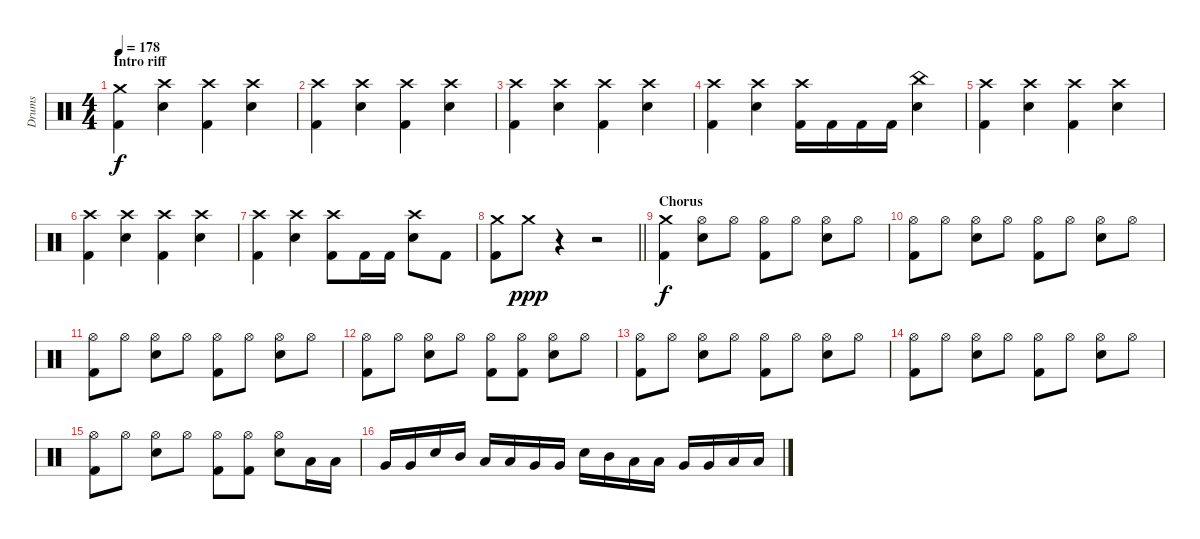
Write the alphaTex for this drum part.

\track ("Drums" "Drums") {instrument percussion}
\staff {score}
\articulation defaults
\ts (4 4)
\section ("" "Intro riff")
\tempo 178
\clef neutral
\ks c
("Crash medium (hit)" "Kick (hit) 2").4{dy f} ("Crash high (hit)" "Electric Snare (hit)").4 ("Crash high (hit)" "Kick (hit) 2").4 ("Crash high (hit)" "Electric Snare (hit)").4 |
("Crash high (hit)" "Kick (hit) 2").4 ("Crash high (hit)" "Electric Snare (hit)").4 ("Crash high (hit)" "Kick (hit) 2").4 ("Crash high (hit)" "Electric Snare (hit)").4 |
("Crash high (hit)" "Kick (hit) 2").4 ("Crash high (hit)" "Electric Snare (hit)").4 ("Crash high (hit)" "Kick (hit) 2").4 ("Crash high (hit)" "Electric Snare (hit)").4 |
("Crash high (hit)" "Kick (hit) 2").4 ("Crash high (hit)" "Electric Snare (hit)").4 ("Crash high (hit)" "Kick (hit) 2").16 "Kick (hit) 2".16 "Kick (hit) 2".16 "Kick (hit) 2".16 ("China (hit)" "Electric Snare (hit)").4 |
("Crash high (hit)" "Kick (hit) 2").4 ("Crash high (hit)" "Electric Snare (hit)").4 ("Crash high (hit)" "Kick (hit) 2").4 ("Crash high (hit)" "Electric Snare (hit)").4 |
("Crash high (hit)" "Kick (hit) 2").4 ("Crash high (hit)" "Electric Snare (hit)").4 ("Crash high (hit)" "Kick (hit) 2").4 ("Crash high (hit)" "Electric Snare (hit)").4 |
("Crash high (hit)" "Kick (hit) 2").4 ("Crash high (hit)" "Electric Snare (hit)").4 ("Crash high (hit)" "Kick (hit) 2").8 "Kick (hit) 2".16 "Kick (hit) 2".16 ("Crash high (hit)" "Electric Snare (hit)").8 "Kick (hit) 2".8 |
\barLineRight lightlight
("Crash medium (hit)" "Kick (hit) 2").8 "Crash medium (hit)".8{dy ppp} r.4 r.2 |
\section ("" "Chorus")
("Crash medium (hit)" "Kick (hit) 2").4{dy f} ("Hi-Hat (open)" "Electric Snare (hit)").8 "Hi-Hat (open)".8 ("Hi-Hat (open)" "Kick (hit) 2").8 "Hi-Hat (open)".8 ("Hi-Hat (open)" "Electric Snare (hit)").8 "Hi-Hat (open)".8 |
("Hi-Hat (open)" "Kick (hit) 2").8 "Hi-Hat (open)".8 ("Hi-Hat (open)" "Electric Snare (hit)").8 "Hi-Hat (open)".8 ("Hi-Hat (open)" "Kick (hit) 2").8 "Hi-Hat (open)".8 ("Hi-Hat (open)" "Electric Snare (hit)").8 "Hi-Hat (open)".8 |
("Hi-Hat (open)" "Kick (hit) 2").8 "Hi-Hat (open)".8 ("Hi-Hat (open)" "Electric Snare (hit)").8 "Hi-Hat (open)".8 ("Hi-Hat (open)" "Kick (hit) 2").8 "Hi-Hat (open)".8 ("Hi-Hat (open)" "Electric Snare (hit)").8 "Hi-Hat (open)".8 |
("Hi-Hat (open)" "Kick (hit) 2").8 "Hi-Hat (open)".8 ("Hi-Hat (open)" "Electric Snare (hit)").8 "Hi-Hat (open)".8 ("Hi-Hat (open)" "Kick (hit) 2").8 ("Hi-Hat (open)" "Kick (hit) 2").8 ("Hi-Hat (open)" "Electric Snare (hit)").8 "Hi-Hat (open)".8 |
("Hi-Hat (open)" "Kick (hit) 2").8 "Hi-Hat (open)".8 ("Hi-Hat (open)" "Electric Snare (hit)").8 "Hi-Hat (open)".8 ("Hi-Hat (open)" "Kick (hit) 2").8 "Hi-Hat (open)".8 ("Hi-Hat (open)" "Electric Snare (hit)").8 "Hi-Hat (open)".8 |
("Hi-Hat (open)" "Kick (hit) 2").8 "Hi-Hat (open)".8 ("Hi-Hat (open)" "Electric Snare (hit)").8 "Hi-Hat (open)".8 ("Hi-Hat (open)" "Kick (hit) 2").8 "Hi-Hat (open)".8 ("Hi-Hat (open)" "Electric Snare (hit)").8 "Hi-Hat (open)".8 |
("Hi-Hat (open)" "Kick (hit) 2").8 "Hi-Hat (open)".8 ("Hi-Hat (open)" "Electric Snare (hit)").8 "Hi-Hat (open)".8 ("Hi-Hat (open)" "Kick (hit) 2").8 ("Hi-Hat (open)" "Kick (hit) 2").8 ("Hi-Hat (open)" "Electric Snare (hit)").8 "Low Tom (hit)".16 "Low Tom (hit)".16 |
"Very Low Tom (hit)".16 "Very Low Tom (hit)".16 "Electric Snare (hit)".16 "Mid Tom (hit)".16 "Low Tom (hit)".16 "Low Tom (hit)".16 "Very Low Tom (hit)".16 "Very Low Tom (hit)".16 "Electric Snare (hit)".16 "Mid Tom (hit)".16 "Low Tom (hit)".16 "Low Tom (hit)".16 "Very Low Tom (hit)".16 "Very Low Tom (hit)".16 "Low Floor Tom (hit)".16 "Low Floor Tom (hit)".16
